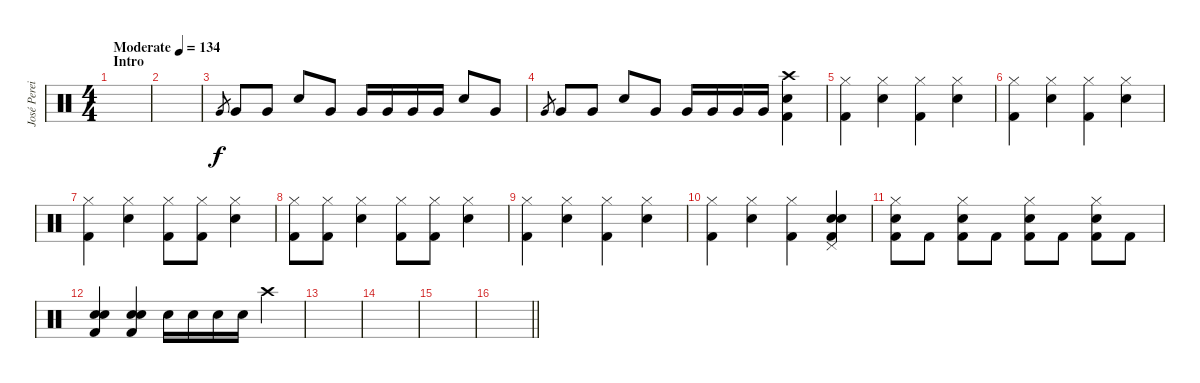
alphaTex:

\track ("José Pereira" "José Perei") {instrument percussion}
\staff {score}
\articulation defaults
\ts (4 4)
\section ("" "Intro")
\tempo (134 "Moderate")
\clef neutral
\ks c
|
|
"Very Low Tom (hit)".8{gr} "Very Low Tom (hit)".8 "Very Low Tom (hit)".8 "Snare (hit) 2".8 "Very Low Tom (hit)".8 "Very Low Tom (hit)".16 "Very Low Tom (hit)".16 "Very Low Tom (hit)".16 "Very Low Tom (hit)".16 "Snare (hit) 2".8 "Very Low Tom (hit)".8 |
"Very Low Tom (hit)".8{gr} "Very Low Tom (hit)".8 "Very Low Tom (hit)".8 "Snare (hit) 2".8 "Very Low Tom (hit)".8 "Very Low Tom (hit)".16 "Very Low Tom (hit)".16 "Very Low Tom (hit)".16 "Very Low Tom (hit)".16 ("Kick (hit) 2" "Snare (hit) 2" "Crash high (hit)").4 |
("Hi-Hat (closed)" "Kick (hit) 2").4 ("Hi-Hat (closed)" "Electric Snare (hit)").4 ("Hi-Hat (closed)" "Kick (hit) 2").4 ("Hi-Hat (closed)" "Electric Snare (hit)").4 |
("Hi-Hat (closed)" "Kick (hit) 2").4 ("Hi-Hat (closed)" "Electric Snare (hit)").4 ("Hi-Hat (closed)" "Kick (hit) 2").4 ("Hi-Hat (closed)" "Electric Snare (hit)").4 |
("Hi-Hat (closed)" "Kick (hit) 2").4 ("Hi-Hat (closed)" "Electric Snare (hit)").4 ("Hi-Hat (closed)" "Kick (hit) 2").8 ("Hi-Hat (closed)" "Kick (hit) 2").8 ("Hi-Hat (closed)" "Electric Snare (hit)").4 |
("Hi-Hat (closed)" "Kick (hit) 2").8 ("Hi-Hat (closed)" "Kick (hit) 2").8 ("Hi-Hat (closed)" "Electric Snare (hit)").4 ("Hi-Hat (closed)" "Kick (hit) 2").8 ("Hi-Hat (closed)" "Kick (hit) 2").8 ("Hi-Hat (closed)" "Electric Snare (hit)").4 |
("Hi-Hat (closed)" "Kick (hit) 2").4 ("Hi-Hat (closed)" "Electric Snare (hit)").4 ("Hi-Hat (closed)" "Kick (hit) 2").4 ("Hi-Hat (closed)" "Electric Snare (hit)").4 |
("Hi-Hat (closed)" "Kick (hit) 2").4 ("Hi-Hat (closed)" "Electric Snare (hit)").4 ("Hi-Hat (closed)" "Kick (hit) 2").4 ("Pedal Hi-Hat (hit)" "Electric Snare (hit)" "Kick (hit) 2" "Snare (hit) 2").4 |
("Hi-Hat (closed)" "Snare (hit) 2" "Kick (hit) 2").8 "Kick (hit) 2".8 ("Hi-Hat (closed)" "Snare (hit) 2" "Kick (hit) 2").8 "Kick (hit) 2".8 ("Hi-Hat (closed)" "Snare (hit) 2" "Kick (hit) 2").8 "Kick (hit) 2".8 ("Hi-Hat (closed)" "Snare (hit) 2" "Kick (hit) 2").8 "Kick (hit) 2".8 |
("Electric Snare (hit)" "Electric Snare (hit)" "Kick (hit) 2").4 ("Snare (hit) 2" "Snare (hit) 2" "Kick (hit) 2").4 "Snare (hit) 2".16 "Snare (hit) 2".16 "Snare (hit) 2".16 "Snare (hit) 2".16 "Crash high (hit)".4 |
|
|
|
\barLineRight lightlight
